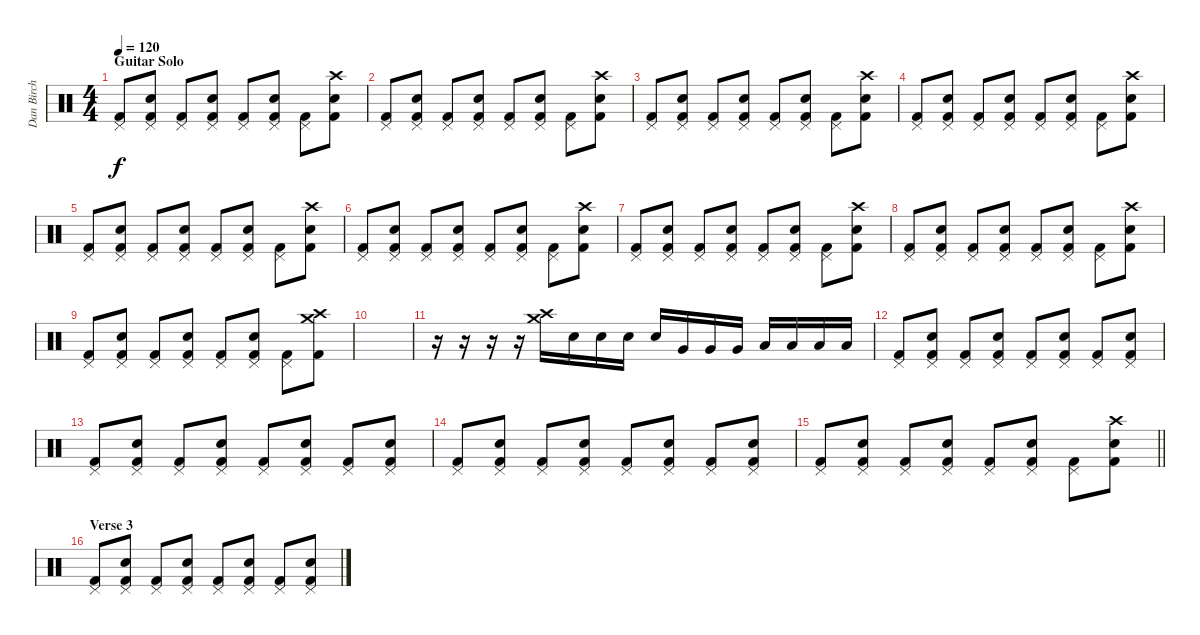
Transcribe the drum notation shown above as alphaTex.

\track ("Dan Birch" "Dan Birch") {instrument percussion}
\staff {score}
\articulation defaults
\ts (4 4)
\section ("" "Guitar Solo")
\tempo 120
\clef neutral
\ks c
("Pedal Hi-Hat (hit)" "Kick (hit) 2").8{dy f} ("Pedal Hi-Hat (hit)" "Snare (hit) 2" "Kick (hit) 2").8 ("Pedal Hi-Hat (hit)" "Kick (hit) 2").8 ("Pedal Hi-Hat (hit)" "Snare (hit) 2" "Kick (hit) 2").8 ("Pedal Hi-Hat (hit)" "Kick (hit) 2").8 ("Pedal Hi-Hat (hit)" "Snare (hit) 2" "Kick (hit) 2").8 ("Pedal Hi-Hat (hit)" "Kick (hit) 2").8 ("Crash high (hit)" "Snare (hit) 2" "Kick (hit) 2").8 |
("Pedal Hi-Hat (hit)" "Kick (hit) 2").8 ("Pedal Hi-Hat (hit)" "Snare (hit) 2" "Kick (hit) 2").8 ("Pedal Hi-Hat (hit)" "Kick (hit) 2").8 ("Pedal Hi-Hat (hit)" "Snare (hit) 2" "Kick (hit) 2").8 ("Pedal Hi-Hat (hit)" "Kick (hit) 2").8 ("Pedal Hi-Hat (hit)" "Snare (hit) 2" "Kick (hit) 2").8 ("Pedal Hi-Hat (hit)" "Kick (hit) 2").8 ("Crash high (hit)" "Snare (hit) 2" "Kick (hit) 2").8 |
("Pedal Hi-Hat (hit)" "Kick (hit) 2").8 ("Pedal Hi-Hat (hit)" "Snare (hit) 2" "Kick (hit) 2").8 ("Pedal Hi-Hat (hit)" "Kick (hit) 2").8 ("Pedal Hi-Hat (hit)" "Snare (hit) 2" "Kick (hit) 2").8 ("Pedal Hi-Hat (hit)" "Kick (hit) 2").8 ("Pedal Hi-Hat (hit)" "Snare (hit) 2" "Kick (hit) 2").8 ("Pedal Hi-Hat (hit)" "Kick (hit) 2").8 ("Crash high (hit)" "Snare (hit) 2" "Kick (hit) 2").8 |
("Pedal Hi-Hat (hit)" "Kick (hit) 2").8 ("Pedal Hi-Hat (hit)" "Snare (hit) 2" "Kick (hit) 2").8 ("Pedal Hi-Hat (hit)" "Kick (hit) 2").8 ("Pedal Hi-Hat (hit)" "Snare (hit) 2" "Kick (hit) 2").8 ("Pedal Hi-Hat (hit)" "Kick (hit) 2").8 ("Pedal Hi-Hat (hit)" "Snare (hit) 2" "Kick (hit) 2").8 ("Pedal Hi-Hat (hit)" "Kick (hit) 2").8 ("Crash high (hit)" "Snare (hit) 2" "Kick (hit) 2").8 |
("Pedal Hi-Hat (hit)" "Kick (hit) 2").8 ("Pedal Hi-Hat (hit)" "Snare (hit) 2" "Kick (hit) 2").8 ("Pedal Hi-Hat (hit)" "Kick (hit) 2").8 ("Pedal Hi-Hat (hit)" "Snare (hit) 2" "Kick (hit) 2").8 ("Pedal Hi-Hat (hit)" "Kick (hit) 2").8 ("Pedal Hi-Hat (hit)" "Snare (hit) 2" "Kick (hit) 2").8 ("Pedal Hi-Hat (hit)" "Kick (hit) 2").8 ("Crash high (hit)" "Snare (hit) 2" "Kick (hit) 2").8 |
("Pedal Hi-Hat (hit)" "Kick (hit) 2").8 ("Pedal Hi-Hat (hit)" "Snare (hit) 2" "Kick (hit) 2").8 ("Pedal Hi-Hat (hit)" "Kick (hit) 2").8 ("Pedal Hi-Hat (hit)" "Snare (hit) 2" "Kick (hit) 2").8 ("Pedal Hi-Hat (hit)" "Kick (hit) 2").8 ("Pedal Hi-Hat (hit)" "Snare (hit) 2" "Kick (hit) 2").8 ("Pedal Hi-Hat (hit)" "Kick (hit) 2").8 ("Crash high (hit)" "Snare (hit) 2" "Kick (hit) 2").8 |
("Pedal Hi-Hat (hit)" "Kick (hit) 2").8 ("Pedal Hi-Hat (hit)" "Snare (hit) 2" "Kick (hit) 2").8 ("Pedal Hi-Hat (hit)" "Kick (hit) 2").8 ("Pedal Hi-Hat (hit)" "Snare (hit) 2" "Kick (hit) 2").8 ("Pedal Hi-Hat (hit)" "Kick (hit) 2").8 ("Pedal Hi-Hat (hit)" "Snare (hit) 2" "Kick (hit) 2").8 ("Pedal Hi-Hat (hit)" "Kick (hit) 2").8 ("Crash high (hit)" "Snare (hit) 2" "Kick (hit) 2").8 |
("Pedal Hi-Hat (hit)" "Kick (hit) 2").8 ("Pedal Hi-Hat (hit)" "Snare (hit) 2" "Kick (hit) 2").8 ("Pedal Hi-Hat (hit)" "Kick (hit) 2").8 ("Pedal Hi-Hat (hit)" "Snare (hit) 2" "Kick (hit) 2").8 ("Pedal Hi-Hat (hit)" "Kick (hit) 2").8 ("Pedal Hi-Hat (hit)" "Snare (hit) 2" "Kick (hit) 2").8 ("Pedal Hi-Hat (hit)" "Kick (hit) 2").8 ("Crash high (hit)" "Snare (hit) 2" "Kick (hit) 2").8 |
("Pedal Hi-Hat (hit)" "Kick (hit) 2").8 ("Pedal Hi-Hat (hit)" "Snare (hit) 2" "Kick (hit) 2").8 ("Pedal Hi-Hat (hit)" "Kick (hit) 2").8 ("Pedal Hi-Hat (hit)" "Snare (hit) 2" "Kick (hit) 2").8 ("Pedal Hi-Hat (hit)" "Kick (hit) 2").8 ("Pedal Hi-Hat (hit)" "Snare (hit) 2" "Kick (hit) 2").8 ("Pedal Hi-Hat (hit)" "Kick (hit) 2").8 ("Crash high (hit)" "Crash medium (hit)" "Kick (hit) 2").8 |
|
r.16 r.16 r.16 r.16 ("Crash high (hit)" "Crash medium (hit)").16 "Snare (hit) 2".16 "Snare (hit) 2".16 "Snare (hit) 2".16 "Snare (hit) 2".16 "Very Low Tom (hit)".16 "Very Low Tom (hit)".16 "Very Low Tom (hit)".16 "Low Tom (hit)".16 "Low Tom (hit)".16 "Low Tom (hit)".16 "Low Floor Tom (hit)".16 |
("Pedal Hi-Hat (hit)" "Kick (hit) 2").8 ("Pedal Hi-Hat (hit)" "Snare (hit) 2" "Kick (hit) 2").8 ("Pedal Hi-Hat (hit)" "Kick (hit) 2").8 ("Pedal Hi-Hat (hit)" "Snare (hit) 2" "Kick (hit) 2").8 ("Pedal Hi-Hat (hit)" "Kick (hit) 2").8 ("Pedal Hi-Hat (hit)" "Snare (hit) 2" "Kick (hit) 2").8 ("Pedal Hi-Hat (hit)" "Kick (hit) 2").8 ("Pedal Hi-Hat (hit)" "Snare (hit) 2" "Kick (hit) 2").8 |
("Pedal Hi-Hat (hit)" "Kick (hit) 2").8 ("Pedal Hi-Hat (hit)" "Snare (hit) 2" "Kick (hit) 2").8 ("Pedal Hi-Hat (hit)" "Kick (hit) 2").8 ("Pedal Hi-Hat (hit)" "Snare (hit) 2" "Kick (hit) 2").8 ("Pedal Hi-Hat (hit)" "Kick (hit) 2").8 ("Pedal Hi-Hat (hit)" "Snare (hit) 2" "Kick (hit) 2").8 ("Pedal Hi-Hat (hit)" "Kick (hit) 2").8 ("Pedal Hi-Hat (hit)" "Snare (hit) 2" "Kick (hit) 2").8 |
("Pedal Hi-Hat (hit)" "Kick (hit) 2").8 ("Pedal Hi-Hat (hit)" "Snare (hit) 2" "Kick (hit) 2").8 ("Pedal Hi-Hat (hit)" "Kick (hit) 2").8 ("Pedal Hi-Hat (hit)" "Snare (hit) 2" "Kick (hit) 2").8 ("Pedal Hi-Hat (hit)" "Kick (hit) 2").8 ("Pedal Hi-Hat (hit)" "Snare (hit) 2" "Kick (hit) 2").8 ("Pedal Hi-Hat (hit)" "Kick (hit) 2").8 ("Pedal Hi-Hat (hit)" "Snare (hit) 2" "Kick (hit) 2").8 |
\barLineRight lightlight
("Pedal Hi-Hat (hit)" "Kick (hit) 2").8 ("Pedal Hi-Hat (hit)" "Snare (hit) 2" "Kick (hit) 2").8 ("Pedal Hi-Hat (hit)" "Kick (hit) 2").8 ("Pedal Hi-Hat (hit)" "Snare (hit) 2" "Kick (hit) 2").8 ("Pedal Hi-Hat (hit)" "Kick (hit) 2").8 ("Pedal Hi-Hat (hit)" "Snare (hit) 2" "Kick (hit) 2").8 ("Pedal Hi-Hat (hit)" "Kick (hit) 2").8 ("Crash high (hit)" "Snare (hit) 2" "Kick (hit) 2").8 |
\section ("" "Verse 3")
("Pedal Hi-Hat (hit)" "Kick (hit) 2").8 ("Pedal Hi-Hat (hit)" "Snare (hit) 2" "Kick (hit) 2").8 ("Pedal Hi-Hat (hit)" "Kick (hit) 2").8 ("Pedal Hi-Hat (hit)" "Snare (hit) 2" "Kick (hit) 2").8 ("Pedal Hi-Hat (hit)" "Kick (hit) 2").8 ("Pedal Hi-Hat (hit)" "Snare (hit) 2" "Kick (hit) 2").8 ("Pedal Hi-Hat (hit)" "Kick (hit) 2").8 ("Pedal Hi-Hat (hit)" "Snare (hit) 2" "Kick (hit) 2").8
